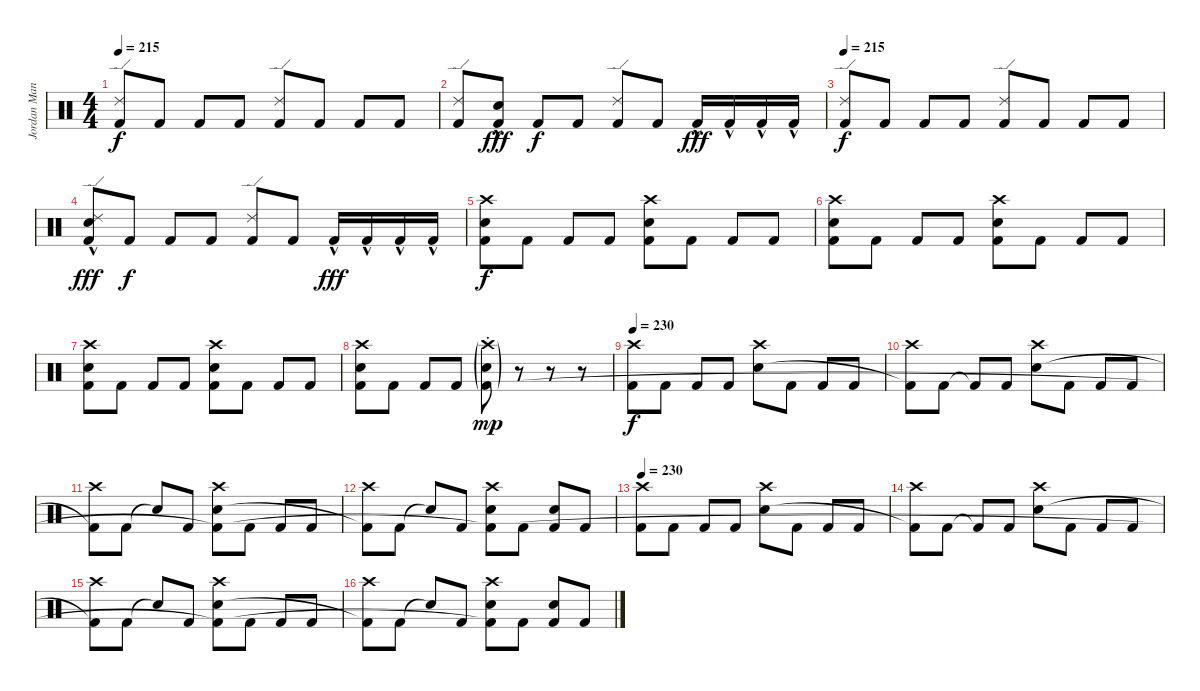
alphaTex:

\track ("Jordan Mancino" "Jordan Man") {instrument percussion}
\staff {score}
\articulation defaults
\ts (4 4)
\tempo 215
\clef neutral
\ks c
("Ride (edge) 2" "Kick (hit) 2").8{dy f} "Kick (hit) 2".8 "Kick (hit) 2".8 "Kick (hit) 2".8 ("Ride (edge) 2" "Kick (hit) 2").8 "Kick (hit) 2".8 "Kick (hit) 2".8 "Kick (hit) 2".8 |
("Ride (edge) 2" "Kick (hit) 2").8 ("Electric Snare (hit)"{hac} "Kick (hit) 2").8{dy fff} "Kick (hit) 2".8{dy f} "Kick (hit) 2".8 ("Ride (edge) 2" "Kick (hit) 2").8 "Kick (hit) 2".8 "Kick (hit) 2"{hac}.16{dy fff} "Kick (hit) 2"{hac}.16 "Kick (hit) 2"{hac}.16 "Kick (hit) 2"{hac}.16 |
\tempo 215
("Ride (edge) 2" "Kick (hit) 2").8{dy f} "Kick (hit) 2".8 "Kick (hit) 2".8 "Kick (hit) 2".8 ("Ride (edge) 2" "Kick (hit) 2").8 "Kick (hit) 2".8 "Kick (hit) 2".8 "Kick (hit) 2".8 |
("Ride (edge) 2" "Electric Snare (hit)"{hac} "Kick (hit) 2").8{dy fff} "Kick (hit) 2".8{dy f} "Kick (hit) 2".8 "Kick (hit) 2".8 ("Ride (edge) 2" "Kick (hit) 2").8 "Kick (hit) 2".8 "Kick (hit) 2"{hac}.16{dy fff} "Kick (hit) 2"{hac}.16 "Kick (hit) 2"{hac}.16 "Kick (hit) 2"{hac}.16 |
("Crash high (hit)" "Electric Snare (hit)" "Kick (hit) 2").8{dy f} "Kick (hit) 2".8 "Kick (hit) 2".8 "Kick (hit) 2".8 ("Crash high (hit)" "Electric Snare (hit)" "Kick (hit) 2").8 "Kick (hit) 2".8 "Kick (hit) 2".8 "Kick (hit) 2".8 |
("Crash high (hit)" "Electric Snare (hit)" "Kick (hit) 2").8 "Kick (hit) 2".8 "Kick (hit) 2".8 "Kick (hit) 2".8 ("Crash high (hit)" "Electric Snare (hit)" "Kick (hit) 2").8 "Kick (hit) 2".8 "Kick (hit) 2".8 "Kick (hit) 2".8 |
("Crash high (hit)" "Electric Snare (hit)" "Kick (hit) 2").8 "Kick (hit) 2".8 "Kick (hit) 2".8 "Kick (hit) 2".8 ("Crash high (hit)" "Electric Snare (hit)" "Kick (hit) 2").8 "Kick (hit) 2".8 "Kick (hit) 2".8 "Kick (hit) 2".8 |
("Crash high (hit)" "Electric Snare (hit)" "Kick (hit) 2").8 "Kick (hit) 2".8 "Kick (hit) 2".8 "Kick (hit) 2".8 ("Crash high (hit)"{g st} "Electric Snare (hit)"{g st} "Kick (hit) 2"{g st}).8{dy mp} r.8 r.8 r.8 |
\tempo 230
("Crash high (hit)" "Kick (hit) 2").8{dy f} "Kick (hit) 2".8 "Kick (hit) 2".8 "Kick (hit) 2".8 ("Crash high (hit)" "Electric Snare (hit)").8 "Kick (hit) 2".8 "Kick (hit) 2".8 "Kick (hit) 2".8 |
("Crash high (hit)" "Kick (hit) 2"{t}).8 "Kick (hit) 2".8 "Kick (hit) 2"{t}.8 "Kick (hit) 2".8 ("Crash high (hit)" "Electric Snare (hit)").8 "Kick (hit) 2".8 "Kick (hit) 2".8 "Kick (hit) 2".8 |
("Crash high (hit)" "Kick (hit) 2"{t}).8 "Kick (hit) 2".8 "Snare (hit)"{t}.8 "Kick (hit) 2".8 ("Crash high (hit)" "Electric Snare (hit)" "Kick (hit) 2"{t}).8 "Kick (hit) 2".8 "Kick (hit) 2".8 "Kick (hit) 2".8 |
("Crash high (hit)" "Kick (hit) 2"{t}).8 "Kick (hit) 2".8 "Snare (hit)"{t}.8 "Kick (hit) 2".8 ("Crash high (hit)" "Electric Snare (hit)" "Kick (hit) 2"{t}).8 "Kick (hit) 2".8 ("Electric Snare (hit)" "Kick (hit) 2").8 "Kick (hit) 2".8 |
\tempo 230
("Crash high (hit)" "Kick (hit) 2").8 "Kick (hit) 2".8 "Kick (hit) 2".8 "Kick (hit) 2".8 ("Crash high (hit)" "Electric Snare (hit)").8 "Kick (hit) 2".8 "Kick (hit) 2".8 "Kick (hit) 2".8 |
("Crash high (hit)" "Kick (hit) 2"{t}).8 "Kick (hit) 2".8 "Kick (hit) 2"{t}.8 "Kick (hit) 2".8 ("Crash high (hit)" "Electric Snare (hit)").8 "Kick (hit) 2".8 "Kick (hit) 2".8 "Kick (hit) 2".8 |
("Crash high (hit)" "Kick (hit) 2"{t}).8 "Kick (hit) 2".8 "Snare (hit)"{t}.8 "Kick (hit) 2".8 ("Crash high (hit)" "Electric Snare (hit)" "Kick (hit) 2"{t}).8 "Kick (hit) 2".8 "Kick (hit) 2".8 "Kick (hit) 2".8 |
("Crash high (hit)" "Kick (hit) 2"{t}).8 "Kick (hit) 2".8 "Snare (hit)"{t}.8 "Kick (hit) 2".8 ("Crash high (hit)" "Electric Snare (hit)" "Kick (hit) 2"{t}).8 "Kick (hit) 2".8 ("Electric Snare (hit)" "Kick (hit) 2").8 "Kick (hit) 2".8
